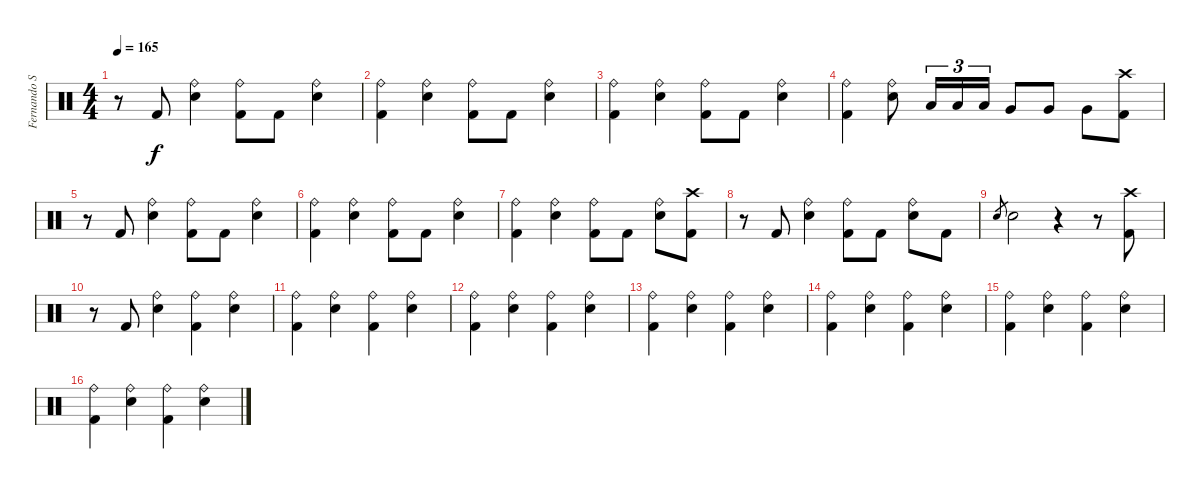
\track ("Fernando Scarcella" "Fernando S") {instrument percussion}
\staff {score}
\articulation defaults
\ts (4 4)
\tempo 165
\clef neutral
\ks c
r.8{dy f} "Kick (hit) 2".8 ("Ride (bell)" "Snare (hit) 2").4 ("Ride (bell)" "Kick (hit) 2").8 "Kick (hit) 2".8 ("Ride (bell)" "Snare (hit) 2").4 |
("Ride (bell)" "Kick (hit) 2").4 ("Ride (bell)" "Snare (hit) 2").4 ("Ride (bell)" "Kick (hit) 2").8 "Kick (hit) 2".8 ("Ride (bell)" "Snare (hit) 2").4 |
("Ride (bell)" "Kick (hit) 2").4 ("Ride (bell)" "Snare (hit) 2").4 ("Ride (bell)" "Kick (hit) 2").8 "Kick (hit) 2".8 ("Ride (bell)" "Snare (hit) 2").4 |
("Ride (bell)" "Kick (hit) 2").4 ("Ride (bell)" "Snare (hit) 2").8 "Low Tom (hit)".16{tu (3 2)} "Low Tom (hit)".16{tu (3 2)} "Low Tom (hit)".16{tu (3 2)} "Very Low Tom (hit)".8 "Very Low Tom (hit)".8 "Very Low Tom (hit)".8 ("Crash high (hit)" "Kick (hit) 2").8 |
r.8 "Kick (hit) 2".8 ("Ride (bell)" "Snare (hit) 2").4 ("Ride (bell)" "Kick (hit) 2").8 "Kick (hit) 2".8 ("Ride (bell)" "Snare (hit) 2").4 |
("Ride (bell)" "Kick (hit) 2").4 ("Ride (bell)" "Snare (hit) 2").4 ("Ride (bell)" "Kick (hit) 2").8 "Kick (hit) 2".8 ("Ride (bell)" "Snare (hit) 2").4 |
("Ride (bell)" "Kick (hit) 2").4 ("Ride (bell)" "Snare (hit) 2").4 ("Ride (bell)" "Kick (hit) 2").8 "Kick (hit) 2".8 ("Ride (bell)" "Snare (hit) 2").8 ("Crash high (hit)" "Kick (hit) 2").8 |
r.8 "Kick (hit) 2".8 ("Ride (bell)" "Snare (hit) 2").4 ("Ride (bell)" "Kick (hit) 2").8 "Kick (hit) 2".8 ("Ride (bell)" "Snare (hit) 2").8 "Kick (hit) 2".8 |
"Snare (hit) 2".8{gr} "Snare (hit) 2".2 r.4 r.8 ("Crash high (hit)" "Kick (hit) 2").8 |
r.8 "Kick (hit) 2".8 ("Ride (bell)" "Snare (hit) 2").4 ("Ride (bell)" "Kick (hit) 2").4 ("Ride (bell)" "Snare (hit) 2").4 |
("Ride (bell)" "Kick (hit) 2").4 ("Ride (bell)" "Snare (hit) 2").4 ("Ride (bell)" "Kick (hit) 2").4 ("Ride (bell)" "Snare (hit) 2").4 |
("Ride (bell)" "Kick (hit) 2").4 ("Ride (bell)" "Snare (hit) 2").4 ("Ride (bell)" "Kick (hit) 2").4 ("Ride (bell)" "Snare (hit) 2").4 |
("Ride (bell)" "Kick (hit) 2").4 ("Ride (bell)" "Snare (hit) 2").4 ("Ride (bell)" "Kick (hit) 2").4 ("Ride (bell)" "Snare (hit) 2").4 |
("Ride (bell)" "Kick (hit) 2").4 ("Ride (bell)" "Snare (hit) 2").4 ("Ride (bell)" "Kick (hit) 2").4 ("Ride (bell)" "Snare (hit) 2").4 |
("Ride (bell)" "Kick (hit) 2").4 ("Ride (bell)" "Snare (hit) 2").4 ("Ride (bell)" "Kick (hit) 2").4 ("Ride (bell)" "Snare (hit) 2").4 |
("Ride (bell)" "Kick (hit) 2").4 ("Ride (bell)" "Snare (hit) 2").4 ("Ride (bell)" "Kick (hit) 2").4 ("Ride (bell)" "Snare (hit) 2").4
